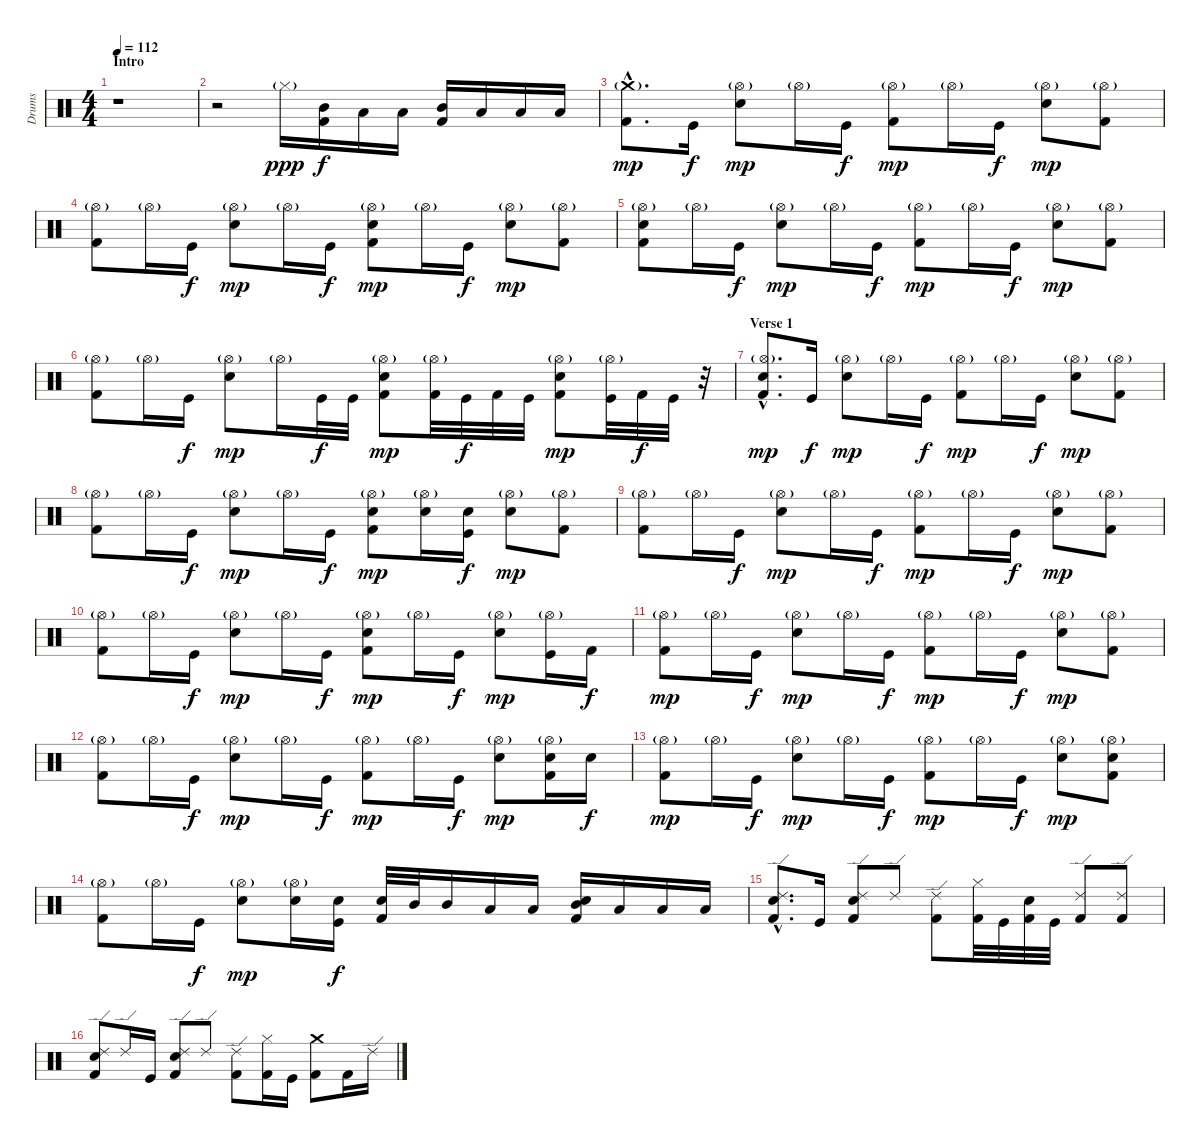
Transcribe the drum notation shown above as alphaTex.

\track ("Drums" "Drums") {instrument percussion}
\staff {score}
\articulation defaults
\ts (4 4)
\section ("" "Intro")
\tempo 112
\clef neutral
\ks c
r.1{dy ppp} |
r.2 "Hi-Hat (closed)"{g}.16 ("Kick (hit) 2" "Mid Tom (hit)").16{dy f} "Low Tom (hit)".16 "Low Tom (hit)".16 ("Kick (hit) 2" "Mid Tom (hit)").16 "Low Tom (hit)".16 "Low Tom (hit)".16 "Low Tom (hit)".16 |
("Crash medium (hit)"{g hac} "Kick (hit) 2"{hac}).8{d dy mp} "Kick (hit)".16{dy f} ("Hi-Hat (open)"{g} "Snare (hit) 2").8{dy mp} "Hi-Hat (open)"{g}.16 "Kick (hit)".16{dy f} ("Hi-Hat (open)"{g} "Kick (hit) 2").8{dy mp} "Hi-Hat (open)"{g}.16 "Kick (hit)".16{dy f} ("Hi-Hat (open)"{g} "Snare (hit) 2").8{dy mp} ("Hi-Hat (open)"{g} "Kick (hit) 2").8 |
("Hi-Hat (open)"{g} "Kick (hit) 2").8 "Hi-Hat (open)"{g}.16 "Kick (hit)".16{dy f} ("Hi-Hat (open)"{g} "Snare (hit) 2").8{dy mp} "Hi-Hat (open)"{g}.16 "Kick (hit)".16{dy f} ("Hi-Hat (open)"{g} "Snare (hit) 2" "Kick (hit) 2").8{dy mp} "Hi-Hat (open)"{g}.16 "Kick (hit)".16{dy f} ("Hi-Hat (open)"{g} "Snare (hit) 2").8{dy mp} ("Hi-Hat (open)"{g} "Kick (hit) 2").8 |
("Hi-Hat (open)"{g} "Snare (hit) 2" "Kick (hit) 2").8 "Hi-Hat (open)"{g}.16 "Kick (hit)".16{dy f} ("Hi-Hat (open)"{g} "Snare (hit) 2").8{dy mp} "Hi-Hat (open)"{g}.16 "Kick (hit)".16{dy f} ("Hi-Hat (open)"{g} "Kick (hit) 2").8{dy mp} "Hi-Hat (open)"{g}.16 "Kick (hit)".16{dy f} ("Hi-Hat (open)"{g} "Snare (hit) 2").8{dy mp} ("Hi-Hat (open)"{g} "Kick (hit) 2").8 |
("Hi-Hat (open)"{g} "Kick (hit) 2").8 "Hi-Hat (open)"{g}.16 "Kick (hit)".16{dy f} ("Hi-Hat (open)"{g} "Snare (hit) 2").8{dy mp} "Hi-Hat (open)"{g}.16 "Kick (hit)".32{dy f} "Kick (hit)".32 ("Hi-Hat (open)"{g} "Snare (hit) 2" "Kick (hit) 2").8{dy mp} ("Hi-Hat (open)"{g} "Kick (hit) 2").32 "Kick (hit)".32{dy f} "Kick (hit) 2".32 "Kick (hit)".32 ("Hi-Hat (open)"{g} "Snare (hit) 2" "Kick (hit) 2").8{dy mp} ("Hi-Hat (open)"{g} "Kick (hit)").32 "Kick (hit) 2".32{dy f} "Kick (hit)".32 r.32 |
\section ("" "Verse 1")
("Hi-Hat (open)"{g hac} "Snare (hit) 2"{hac} "Kick (hit) 2"{hac}).8{d dy mp} "Kick (hit)".16{dy f} ("Hi-Hat (open)"{g} "Snare (hit) 2").8{dy mp} "Hi-Hat (open)"{g}.16 "Kick (hit)".16{dy f} ("Hi-Hat (open)"{g} "Kick (hit) 2").8{dy mp} "Hi-Hat (open)"{g}.16 "Kick (hit)".16{dy f} ("Hi-Hat (open)"{g} "Snare (hit) 2").8{dy mp} ("Hi-Hat (open)"{g} "Kick (hit) 2").8 |
("Hi-Hat (open)"{g} "Kick (hit) 2").8 "Hi-Hat (open)"{g}.16 "Kick (hit)".16{dy f} ("Hi-Hat (open)"{g} "Snare (hit) 2").8{dy mp} "Hi-Hat (open)"{g}.16 "Kick (hit)".16{dy f} ("Hi-Hat (open)"{g} "Snare (hit) 2" "Kick (hit) 2").8{dy mp} ("Hi-Hat (open)"{g} "Snare (hit) 2").16 ("Snare (hit) 2" "Kick (hit)").16{dy f} ("Hi-Hat (open)"{g} "Snare (hit) 2").8{dy mp} ("Hi-Hat (open)"{g} "Kick (hit) 2").8 |
("Hi-Hat (open)"{g} "Kick (hit) 2").8 "Hi-Hat (open)"{g}.16 "Kick (hit)".16{dy f} ("Hi-Hat (open)"{g} "Snare (hit) 2").8{dy mp} "Hi-Hat (open)"{g}.16 "Kick (hit)".16{dy f} ("Hi-Hat (open)"{g} "Kick (hit) 2").8{dy mp} "Hi-Hat (open)"{g}.16 "Kick (hit)".16{dy f} ("Hi-Hat (open)"{g} "Snare (hit) 2").8{dy mp} ("Hi-Hat (open)"{g} "Kick (hit) 2").8 |
("Hi-Hat (open)"{g} "Kick (hit) 2").8 "Hi-Hat (open)"{g}.16 "Kick (hit)".16{dy f} ("Hi-Hat (open)"{g} "Snare (hit) 2").8{dy mp} "Hi-Hat (open)"{g}.16 "Kick (hit)".16{dy f} ("Hi-Hat (open)"{g} "Snare (hit) 2" "Kick (hit) 2").8{dy mp} "Hi-Hat (open)"{g}.16 "Kick (hit)".16{dy f} ("Hi-Hat (open)"{g} "Snare (hit) 2").8{dy mp} ("Hi-Hat (open)"{g} "Kick (hit)").16 "Kick (hit) 2".16{dy f} |
("Hi-Hat (open)"{g} "Kick (hit) 2").8{dy mp} "Hi-Hat (open)"{g}.16 "Kick (hit)".16{dy f} ("Hi-Hat (open)"{g} "Snare (hit) 2").8{dy mp} "Hi-Hat (open)"{g}.16 "Kick (hit)".16{dy f} ("Hi-Hat (open)"{g} "Kick (hit) 2").8{dy mp} "Hi-Hat (open)"{g}.16 "Kick (hit)".16{dy f} ("Hi-Hat (open)"{g} "Snare (hit) 2").8{dy mp} ("Hi-Hat (open)"{g} "Kick (hit) 2").8 |
("Hi-Hat (open)"{g} "Kick (hit) 2").8 "Hi-Hat (open)"{g}.16 "Kick (hit)".16{dy f} ("Hi-Hat (open)"{g} "Snare (hit) 2").8{dy mp} "Hi-Hat (open)"{g}.16 "Kick (hit)".16{dy f} ("Hi-Hat (open)"{g} "Kick (hit) 2").8{dy mp} "Hi-Hat (open)"{g}.16 "Kick (hit)".16{dy f} ("Hi-Hat (open)"{g} "Snare (hit) 2").8{dy mp} ("Hi-Hat (open)"{g} "Snare (hit) 2" "Kick (hit) 2").16 "Snare (hit) 2".16{dy f} |
("Hi-Hat (open)"{g} "Kick (hit) 2").8{dy mp} "Hi-Hat (open)"{g}.16 "Kick (hit)".16{dy f} ("Hi-Hat (open)"{g} "Snare (hit) 2").8{dy mp} "Hi-Hat (open)"{g}.16 "Kick (hit)".16{dy f} ("Hi-Hat (open)"{g} "Kick (hit) 2").8{dy mp} "Hi-Hat (open)"{g}.16 "Kick (hit)".16{dy f} ("Hi-Hat (open)"{g} "Snare (hit) 2").8{dy mp} ("Hi-Hat (open)"{g} "Snare (hit) 2" "Kick (hit) 2").8 |
("Hi-Hat (open)"{g} "Kick (hit) 2").8 "Hi-Hat (open)"{g}.16 "Kick (hit)".16{dy f} ("Hi-Hat (open)"{g} "Snare (hit) 2").8{dy mp} ("Hi-Hat (open)"{g} "Snare (hit) 2").16 ("Snare (hit) 2" "Kick (hit)").16{dy f} ("Snare (hit) 2" "Kick (hit) 2").32 "Mid Tom (hit)".32 "Mid Tom (hit)".16 "Low Tom (hit)".16 "Low Tom (hit)".16 ("Snare (hit) 2" "Mid Tom (hit)" "Kick (hit) 2").16 "Low Tom (hit)".16 "Low Tom (hit)".16 "Low Tom (hit)".16 |
("Ride (edge) 2"{hac} "Snare (hit) 2"{hac} "Kick (hit) 2"{hac}).8{d} "Kick (hit)".16 ("Ride (edge) 2" "Snare (hit) 2" "Kick (hit) 2").8 "Ride (edge) 2".8 ("Ride (edge) 2" "Kick (hit) 2").8 ("Hi-Hat (closed)" "Kick (hit) 2").32 "Kick (hit)".32 ("Snare (hit) 2" "Kick (hit) 2").32 "Kick (hit)".32 ("Ride (edge) 2" "Kick (hit) 2").8 ("Ride (edge) 2" "Kick (hit) 2").8 |
("Ride (edge) 2" "Snare (hit) 2" "Kick (hit) 2").8 "Ride (edge) 2".16 "Kick (hit)".16 ("Ride (edge) 2" "Snare (hit) 2" "Kick (hit) 2").8 "Ride (edge) 2".8 ("Ride (edge) 2" "Kick (hit) 2").8 ("Hi-Hat (closed)" "Kick (hit) 2").16 "Kick (hit)".16 ("Crash medium (hit)" "Kick (hit) 2").8 "Kick (hit) 2".16 "Ride (edge) 2".16
